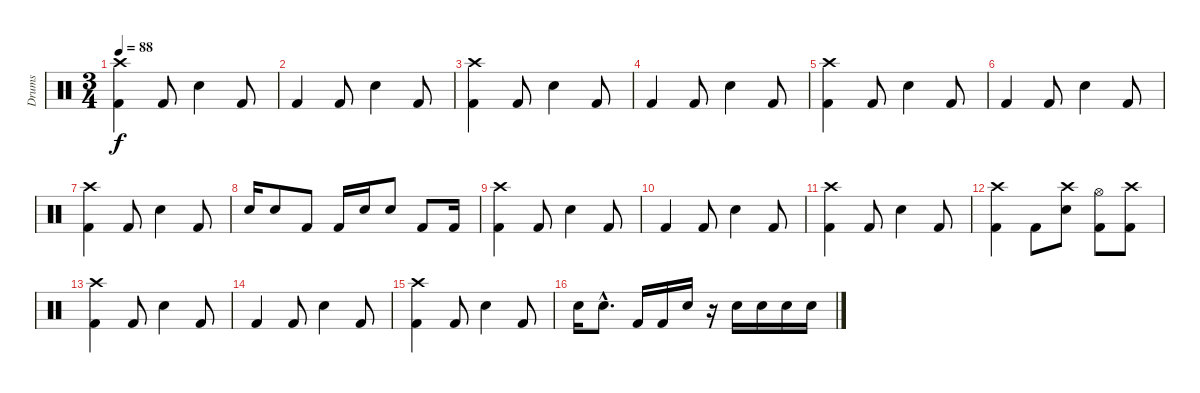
\track ("Drums" "Drums") {instrument percussion}
\staff {score}
\articulation defaults
\ts (3 4)
\tempo 88
\clef neutral
\ks c
("Crash high (hit)" "Kick (hit) 2").4{dy f} "Kick (hit) 2".8 "Snare (hit) 2".4 "Kick (hit) 2".8 |
"Kick (hit) 2".4 "Kick (hit) 2".8 "Snare (hit) 2".4 "Kick (hit) 2".8 |
("Crash high (hit)" "Kick (hit) 2").4 "Kick (hit) 2".8 "Snare (hit) 2".4 "Kick (hit) 2".8 |
"Kick (hit) 2".4 "Kick (hit) 2".8 "Snare (hit) 2".4 "Kick (hit) 2".8 |
("Crash high (hit)" "Kick (hit) 2").4 "Kick (hit) 2".8 "Snare (hit) 2".4 "Kick (hit) 2".8 |
"Kick (hit) 2".4 "Kick (hit) 2".8 "Snare (hit) 2".4 "Kick (hit) 2".8 |
("Crash high (hit)" "Kick (hit) 2").4 "Kick (hit) 2".8 "Snare (hit) 2".4 "Kick (hit) 2".8 |
"Snare (hit) 2".16 "Snare (hit) 2".8 "Kick (hit) 2".8 "Kick (hit) 2".16 "Snare (hit) 2".16 "Snare (hit) 2".8 "Kick (hit) 2".8 "Kick (hit) 2".16 |
("Crash high (hit)" "Kick (hit) 2").4 "Kick (hit) 2".8 "Snare (hit) 2".4 "Kick (hit) 2".8 |
"Kick (hit) 2".4 "Kick (hit) 2".8 "Snare (hit) 2".4 "Kick (hit) 2".8 |
("Crash high (hit)" "Kick (hit) 2").4 "Kick (hit) 2".8 "Snare (hit) 2".4 "Kick (hit) 2".8 |
("Crash high (hit)" "Kick (hit) 2").4 "Kick (hit) 2".8 ("Crash high (hit)" "Snare (hit) 2").8 ("Hi-Hat (open)" "Kick (hit) 2").8 ("Crash high (hit)" "Kick (hit) 2").8 |
("Crash high (hit)" "Kick (hit) 2").4 "Kick (hit) 2".8 "Snare (hit) 2".4 "Kick (hit) 2".8 |
"Kick (hit) 2".4 "Kick (hit) 2".8 "Snare (hit) 2".4 "Kick (hit) 2".8 |
("Crash high (hit)" "Kick (hit) 2").4 "Kick (hit) 2".8 "Snare (hit) 2".4 "Kick (hit) 2".8 |
"Snare (hit) 2".16 "Snare (hit) 2"{hac}.8{d} "Kick (hit) 2".16 "Kick (hit) 2".16 "Snare (hit) 2".16 r.16 "Snare (hit) 2".16 "Snare (hit) 2".16 "Snare (hit) 2".16 "Snare (hit) 2".16
